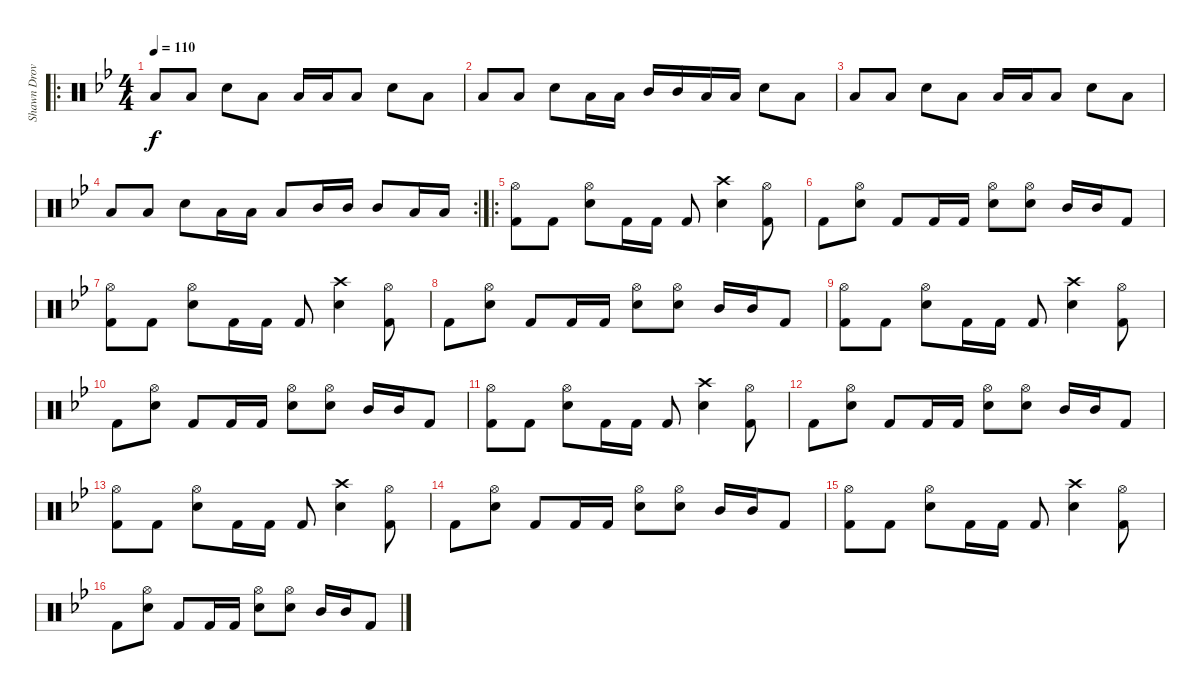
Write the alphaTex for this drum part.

\track ("Shawn Drover" "Shawn Drov") {instrument percussion}
\staff {score}
\articulation defaults
\ro
\ts (4 4)
\tempo 110
\clef neutral
\ks bb "Low Floor Tom (hit)".8{dy f} "Low Floor Tom (hit)".8 "Snare (hit) 2".8 "Low Floor Tom (hit)".8 "Low Floor Tom (hit)".16 "Low Floor Tom (hit)".16 "Low Floor Tom (hit)".8 "Snare (hit) 2".8 "Low Floor Tom (hit)".8
|
"Low Floor Tom (hit)".8 "Low Floor Tom (hit)".8 "Snare (hit) 2".8 "Low Floor Tom (hit)".16 "Low Floor Tom (hit)".16 "Mid Tom (hit)".16 "Mid Tom (hit)".16 "Low Tom (hit)".16 "Low Tom (hit)".16 "Snare (hit) 2".8 "Low Floor Tom (hit)".8 |
"Low Floor Tom (hit)".8 "Low Floor Tom (hit)".8 "Snare (hit) 2".8 "Low Floor Tom (hit)".8 "Low Floor Tom (hit)".16 "Low Floor Tom (hit)".16 "Low Floor Tom (hit)".8 "Snare (hit) 2".8 "Low Floor Tom (hit)".8 |
\rc 2 "Low Floor Tom (hit)".8 "Low Floor Tom (hit)".8 "Snare (hit) 2".8 "Low Floor Tom (hit)".16 "Low Floor Tom (hit)".16 "Low Floor Tom (hit)".8 "Mid Tom (hit)".16 "Mid Tom (hit)".16 "Mid Tom (hit)".8 "Low Tom (hit)".16 "Low Tom (hit)".16
|
\ro
("Hi-Hat (open)" "Kick (hit) 2").8 "Kick (hit) 2".8 ("Hi-Hat (open)" "Snare (hit) 2").8 "Kick (hit) 2".16 "Kick (hit) 2".16 "Kick (hit) 2".8 ("Crash high (hit)" "Snare (hit) 2").4 ("Hi-Hat (open)" "Kick (hit) 2").8 |
"Kick (hit) 2".8 ("Hi-Hat (open)" "Snare (hit) 2").8 "Kick (hit) 2".8 "Kick (hit) 2".16 "Kick (hit) 2".16 ("Hi-Hat (open)" "Snare (hit) 2").8 ("Hi-Hat (open)" "Snare (hit) 2").8 "Mid Tom (hit)".16 "Mid Tom (hit)".16 "Kick (hit) 2".8 |
("Hi-Hat (open)" "Kick (hit) 2").8 "Kick (hit) 2".8 ("Hi-Hat (open)" "Snare (hit) 2").8 "Kick (hit) 2".16 "Kick (hit) 2".16 "Kick (hit) 2".8 ("Crash high (hit)" "Snare (hit) 2").4 ("Hi-Hat (open)" "Kick (hit) 2").8 |
"Kick (hit) 2".8 ("Hi-Hat (open)" "Snare (hit) 2").8 "Kick (hit) 2".8 "Kick (hit) 2".16 "Kick (hit) 2".16 ("Hi-Hat (open)" "Snare (hit) 2").8 ("Hi-Hat (open)" "Snare (hit) 2").8 "Mid Tom (hit)".16 "Mid Tom (hit)".16 "Kick (hit) 2".8 |
("Hi-Hat (open)" "Kick (hit) 2").8 "Kick (hit) 2".8 ("Hi-Hat (open)" "Snare (hit) 2").8 "Kick (hit) 2".16 "Kick (hit) 2".16 "Kick (hit) 2".8 ("Crash high (hit)" "Snare (hit) 2").4 ("Hi-Hat (open)" "Kick (hit) 2").8 |
"Kick (hit) 2".8 ("Hi-Hat (open)" "Snare (hit) 2").8 "Kick (hit) 2".8 "Kick (hit) 2".16 "Kick (hit) 2".16 ("Hi-Hat (open)" "Snare (hit) 2").8 ("Hi-Hat (open)" "Snare (hit) 2").8 "Mid Tom (hit)".16 "Mid Tom (hit)".16 "Kick (hit) 2".8 |
("Hi-Hat (open)" "Kick (hit) 2").8 "Kick (hit) 2".8 ("Hi-Hat (open)" "Snare (hit) 2").8 "Kick (hit) 2".16 "Kick (hit) 2".16 "Kick (hit) 2".8 ("Crash high (hit)" "Snare (hit) 2").4 ("Hi-Hat (open)" "Kick (hit) 2").8 |
"Kick (hit) 2".8 ("Hi-Hat (open)" "Snare (hit) 2").8 "Kick (hit) 2".8 "Kick (hit) 2".16 "Kick (hit) 2".16 ("Hi-Hat (open)" "Snare (hit) 2").8 ("Hi-Hat (open)" "Snare (hit) 2").8 "Mid Tom (hit)".16 "Mid Tom (hit)".16 "Kick (hit) 2".8 |
("Hi-Hat (open)" "Kick (hit) 2").8 "Kick (hit) 2".8 ("Hi-Hat (open)" "Snare (hit) 2").8 "Kick (hit) 2".16 "Kick (hit) 2".16 "Kick (hit) 2".8 ("Crash high (hit)" "Snare (hit) 2").4 ("Hi-Hat (open)" "Kick (hit) 2").8 |
"Kick (hit) 2".8 ("Hi-Hat (open)" "Snare (hit) 2").8 "Kick (hit) 2".8 "Kick (hit) 2".16 "Kick (hit) 2".16 ("Hi-Hat (open)" "Snare (hit) 2").8 ("Hi-Hat (open)" "Snare (hit) 2").8 "Mid Tom (hit)".16 "Mid Tom (hit)".16 "Kick (hit) 2".8 |
("Hi-Hat (open)" "Kick (hit) 2").8 "Kick (hit) 2".8 ("Hi-Hat (open)" "Snare (hit) 2").8 "Kick (hit) 2".16 "Kick (hit) 2".16 "Kick (hit) 2".8 ("Crash high (hit)" "Snare (hit) 2").4 ("Hi-Hat (open)" "Kick (hit) 2").8 |
"Kick (hit) 2".8 ("Hi-Hat (open)" "Snare (hit) 2").8 "Kick (hit) 2".8 "Kick (hit) 2".16 "Kick (hit) 2".16 ("Hi-Hat (open)" "Snare (hit) 2").8 ("Hi-Hat (open)" "Snare (hit) 2").8 "Mid Tom (hit)".16 "Mid Tom (hit)".16 "Kick (hit) 2".8
